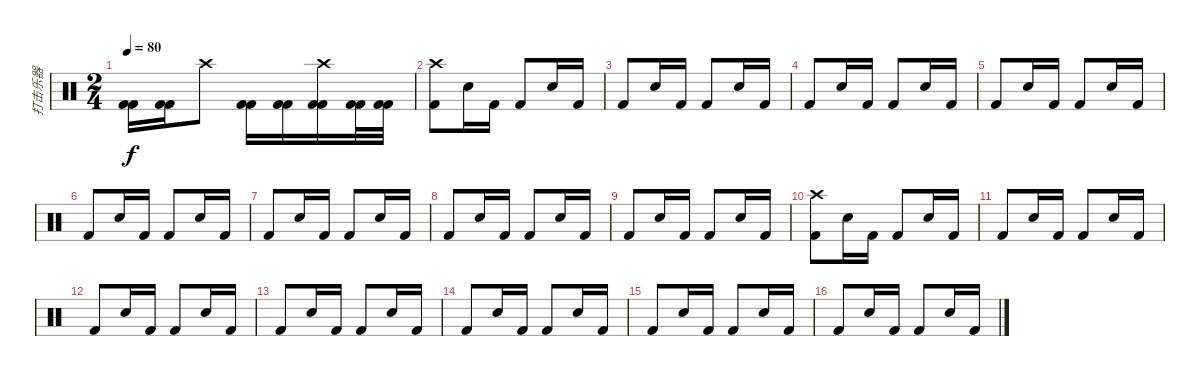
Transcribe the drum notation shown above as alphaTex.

\track ("打击乐器" "打击乐器") {instrument percussion}
\staff {score}
\articulation defaults
\ts (2 4)
\tempo 80
\clef neutral
\ks c
("Kick (hit) 2" "Kick (hit) 2").16{dy f} ("Kick (hit) 2" "Kick (hit) 2").16 "Crash high (hit)".8 ("Kick (hit) 2" "Kick (hit) 2").16 ("Kick (hit) 2" "Kick (hit) 2").16 ("Crash high (hit)" "Kick (hit) 2" "Kick (hit) 2").16 ("Kick (hit) 2" "Kick (hit) 2").32 ("Kick (hit) 2" "Kick (hit) 2").32 |
("Crash high (hit)" "Kick (hit) 2").8 "Electric Snare (hit)".16 "Kick (hit) 2".16 "Kick (hit) 2".8 "Electric Snare (hit)".16 "Kick (hit) 2".16 |
"Kick (hit) 2".8 "Electric Snare (hit)".16 "Kick (hit) 2".16 "Kick (hit) 2".8 "Electric Snare (hit)".16 "Kick (hit) 2".16 |
"Kick (hit) 2".8 "Electric Snare (hit)".16 "Kick (hit) 2".16 "Kick (hit) 2".8 "Electric Snare (hit)".16 "Kick (hit) 2".16 |
"Kick (hit) 2".8 "Electric Snare (hit)".16 "Kick (hit) 2".16 "Kick (hit) 2".8 "Electric Snare (hit)".16 "Kick (hit) 2".16 |
"Kick (hit) 2".8 "Electric Snare (hit)".16 "Kick (hit) 2".16 "Kick (hit) 2".8 "Electric Snare (hit)".16 "Kick (hit) 2".16 |
"Kick (hit) 2".8 "Electric Snare (hit)".16 "Kick (hit) 2".16 "Kick (hit) 2".8 "Electric Snare (hit)".16 "Kick (hit) 2".16 |
"Kick (hit) 2".8 "Electric Snare (hit)".16 "Kick (hit) 2".16 "Kick (hit) 2".8 "Electric Snare (hit)".16 "Kick (hit) 2".16 |
"Kick (hit) 2".8 "Electric Snare (hit)".16 "Kick (hit) 2".16 "Kick (hit) 2".8 "Electric Snare (hit)".16 "Kick (hit) 2".16 |
("Crash high (hit)" "Kick (hit) 2").8 "Electric Snare (hit)".16 "Kick (hit) 2".16 "Kick (hit) 2".8 "Electric Snare (hit)".16 "Kick (hit) 2".16 |
"Kick (hit) 2".8 "Electric Snare (hit)".16 "Kick (hit) 2".16 "Kick (hit) 2".8 "Electric Snare (hit)".16 "Kick (hit) 2".16 |
"Kick (hit) 2".8 "Electric Snare (hit)".16 "Kick (hit) 2".16 "Kick (hit) 2".8 "Electric Snare (hit)".16 "Kick (hit) 2".16 |
"Kick (hit) 2".8 "Electric Snare (hit)".16 "Kick (hit) 2".16 "Kick (hit) 2".8 "Electric Snare (hit)".16 "Kick (hit) 2".16 |
"Kick (hit) 2".8 "Electric Snare (hit)".16 "Kick (hit) 2".16 "Kick (hit) 2".8 "Electric Snare (hit)".16 "Kick (hit) 2".16 |
"Kick (hit) 2".8 "Electric Snare (hit)".16 "Kick (hit) 2".16 "Kick (hit) 2".8 "Electric Snare (hit)".16 "Kick (hit) 2".16 |
"Kick (hit) 2".8 "Electric Snare (hit)".16 "Kick (hit) 2".16 "Kick (hit) 2".8 "Electric Snare (hit)".16 "Kick (hit) 2".16
